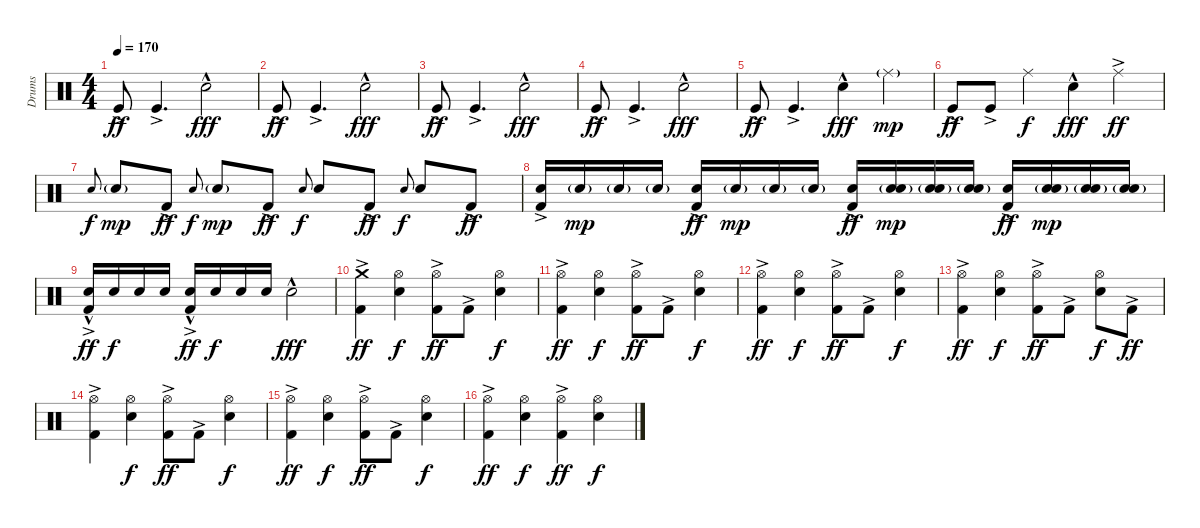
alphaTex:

\track ("Drums" "Drums") {instrument percussion}
\staff {score}
\articulation defaults
\ts (4 4)
\tempo 170
\clef neutral
\ks c "Kick (hit)"{ac}.8{dy ff} "Kick (hit)"{ac}.4{d} "Snare (hit) 2"{hac}.2{dy fff}
|
"Kick (hit)"{ac}.8{dy ff} "Kick (hit)"{ac}.4{d} "Snare (hit) 2"{hac}.2{dy fff} |
"Kick (hit)"{ac}.8{dy ff} "Kick (hit)"{ac}.4{d} "Snare (hit) 2"{hac}.2{dy fff} |
"Kick (hit)"{ac}.8{dy ff} "Kick (hit)"{ac}.4{d} "Snare (hit) 2"{hac}.2{dy fff} |
"Kick (hit)"{ac}.8{dy ff} "Kick (hit)"{ac}.4{d} "Snare (hit) 2"{hac}.4{dy fff} "Ride (middle)"{g}.4{dy mp} |
"Kick (hit)"{ac}.8{dy ff} "Kick (hit)"{ac}.8 "Ride (middle)".4{dy f} "Snare (hit) 2"{hac}.4{dy fff} "Ride (middle)"{ac}.4{dy ff} |
"Electric Snare (hit)".8{gr onbeat dy f} "Electric Snare (hit)"{g}.8{dy mp} "Kick (hit) 2"{ac}.8{dy ff} "Electric Snare (hit)".8{gr onbeat dy f} "Electric Snare (hit)"{g}.8{dy mp} "Kick (hit) 2"{ac}.8{dy ff} "Electric Snare (hit)".8{gr onbeat dy f} "Electric Snare (hit)".8 "Kick (hit) 2"{ac}.8{dy ff} "Electric Snare (hit)".8{gr onbeat dy f} "Electric Snare (hit)".8 "Kick (hit) 2"{ac}.8{dy ff} |
("Snare (hit) 2" "Kick (hit) 2"{ac}).16 "Snare (hit) 2"{g}.16{dy mp} "Snare (hit) 2"{g}.16 "Snare (hit) 2"{g}.16 ("Snare (hit) 2" "Kick (hit) 2"{ac}).16{dy ff} "Snare (hit) 2"{g}.16{dy mp} "Snare (hit) 2"{g}.16 "Snare (hit) 2"{g}.16 ("Snare (hit) 2"{ac} "Kick (hit) 2"{ac}).16{dy ff} ("Snare (hit) 2"{g} "Snare (hit) 2"{g}).16{dy mp} ("Snare (hit) 2"{g} "Snare (hit) 2"{g}).16 ("Snare (hit) 2"{g} "Snare (hit) 2"{g}).16 ("Snare (hit) 2"{ac} "Kick (hit) 2"{ac}).16{dy ff} ("Snare (hit) 2"{g} "Snare (hit) 2"{g}).16{dy mp} ("Snare (hit) 2"{g} "Snare (hit) 2"{g}).16 ("Snare (hit) 2"{g} "Snare (hit) 2"{g}).16 |
("Snare (hit) 2"{hac} "Kick (hit) 2"{ac}).16{dy ff} "Snare (hit) 2".16{dy f} "Snare (hit) 2".16 "Snare (hit) 2".16 ("Snare (hit) 2"{hac} "Kick (hit) 2"{ac}).16{dy ff} "Snare (hit) 2".16{dy f} "Snare (hit) 2".16 "Snare (hit) 2".16 "Electric Snare (hit)"{hac}.2{dy fff} |
("Crash medium (hit)" "Kick (hit) 2"{ac}).4{dy ff} ("Hi-Hat (open)" "Electric Snare (hit)").4{dy f} ("Hi-Hat (open)" "Kick (hit) 2"{ac}).8{dy ff} "Kick (hit) 2"{ac}.8 ("Hi-Hat (open)" "Electric Snare (hit)").4{dy f} |
("Hi-Hat (open)" "Kick (hit) 2"{ac}).4{dy ff} ("Hi-Hat (open)" "Electric Snare (hit)").4{dy f} ("Hi-Hat (open)" "Kick (hit) 2"{ac}).8{dy ff} "Kick (hit) 2"{ac}.8 ("Hi-Hat (open)" "Electric Snare (hit)").4{dy f} |
("Hi-Hat (open)" "Kick (hit) 2"{ac}).4{dy ff} ("Hi-Hat (open)" "Electric Snare (hit)").4{dy f} ("Hi-Hat (open)" "Kick (hit) 2"{ac}).8{dy ff} "Kick (hit) 2"{ac}.8 ("Hi-Hat (open)" "Electric Snare (hit)").4{dy f} |
("Hi-Hat (open)" "Kick (hit) 2"{ac}).4{dy ff} ("Hi-Hat (open)" "Electric Snare (hit)").4{dy f} ("Hi-Hat (open)" "Kick (hit) 2"{ac}).8{dy ff} "Kick (hit) 2"{ac}.8 ("Hi-Hat (open)" "Electric Snare (hit)").8{dy f} "Kick (hit) 2"{ac}.8{dy ff} |
("Hi-Hat (open)" "Kick (hit) 2"{ac}).4 ("Hi-Hat (open)" "Electric Snare (hit)").4{dy f} ("Hi-Hat (open)" "Kick (hit) 2"{ac}).8{dy ff} "Kick (hit) 2"{ac}.8 ("Hi-Hat (open)" "Electric Snare (hit)").4{dy f} |
("Hi-Hat (open)" "Kick (hit) 2"{ac}).4{dy ff} ("Hi-Hat (open)" "Electric Snare (hit)").4{dy f} ("Hi-Hat (open)" "Kick (hit) 2"{ac}).8{dy ff} "Kick (hit) 2"{ac}.8 ("Hi-Hat (open)" "Electric Snare (hit)").4{dy f} |
("Hi-Hat (open)" "Kick (hit) 2"{ac}).4{dy ff} ("Hi-Hat (open)" "Electric Snare (hit)").4{dy f} ("Hi-Hat (open)" "Kick (hit) 2"{ac}).4{dy ff} ("Hi-Hat (open)" "Electric Snare (hit)").4{dy f}
